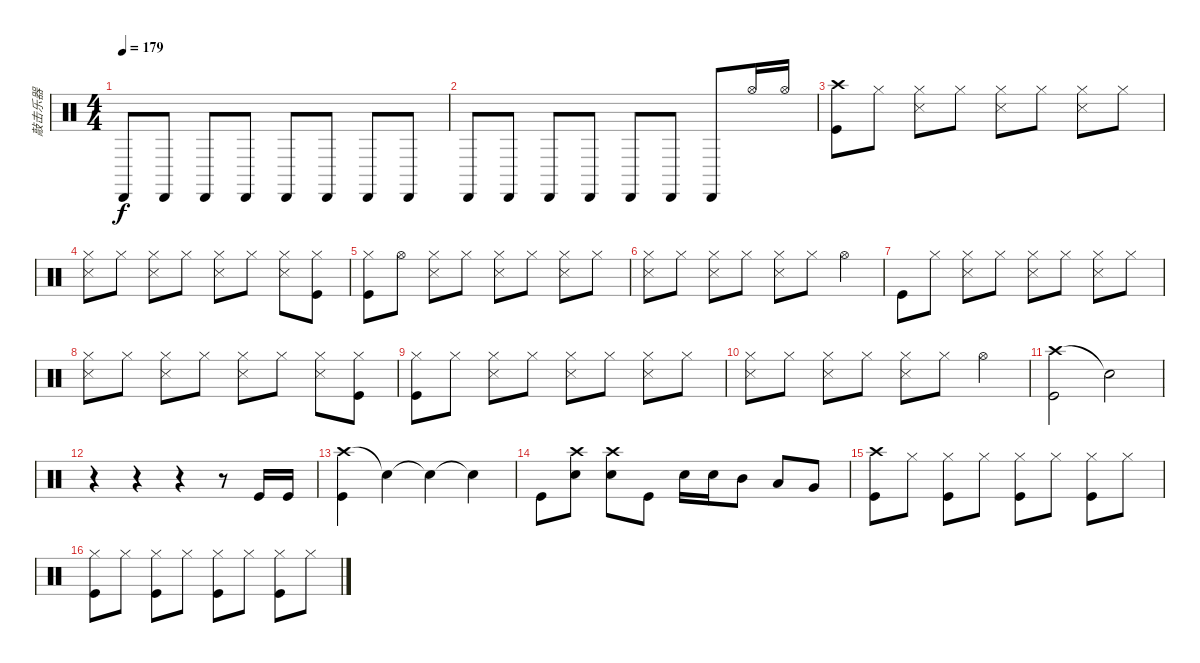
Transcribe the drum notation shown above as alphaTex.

\track ("敲击乐器" "敲击乐器") {instrument percussion}
\staff {score}
\articulation defaults
\ts (4 4)
\tempo 179
\clef neutral
\ks c "Cabasa (hit)".8{dy f} "Cabasa (hit)".8 "Cabasa (hit)".8 "Cabasa (hit)".8 "Cabasa (hit)".8 "Cabasa (hit)".8 "Cabasa (hit)".8 "Cabasa (hit)".8
|
"Cabasa (hit)".8 "Cabasa (hit)".8 "Cabasa (hit)".8 "Cabasa (hit)".8 "Cabasa (hit)".8 "Cabasa (hit)".8 "Cabasa (hit)".8 "Hi-Hat (open)".16 "Hi-Hat (open)".16 |
("Crash high (hit)" "Kick (hit)").8 "Hi-Hat (closed)".8 ("Hi-Hat (closed)" "Snare (side stick) 3").8 "Hi-Hat (closed)".8 ("Hi-Hat (closed)" "Snare (side stick) 3").8 "Hi-Hat (closed)".8 ("Hi-Hat (closed)" "Snare (side stick) 3").8 "Hi-Hat (closed)".8 |
("Hi-Hat (closed)" "Snare (side stick) 3").8 "Hi-Hat (closed)".8 ("Hi-Hat (closed)" "Snare (side stick) 3").8 "Hi-Hat (closed)".8 ("Hi-Hat (closed)" "Snare (side stick) 3").8 "Hi-Hat (closed)".8 ("Hi-Hat (closed)" "Snare (side stick) 3").8 ("Hi-Hat (closed)" "Kick (hit)").8 |
("Hi-Hat (closed)" "Kick (hit)").8 "Hi-Hat (open)".8 ("Hi-Hat (closed)" "Snare (side stick) 3").8 "Hi-Hat (closed)".8 ("Hi-Hat (closed)" "Snare (side stick) 3").8 "Hi-Hat (closed)".8 ("Hi-Hat (closed)" "Snare (side stick) 3").8 "Hi-Hat (closed)".8 |
("Hi-Hat (closed)" "Snare (side stick) 3").8 "Hi-Hat (closed)".8 ("Hi-Hat (closed)" "Snare (side stick) 3").8 "Hi-Hat (closed)".8 ("Hi-Hat (closed)" "Snare (side stick) 3").8 "Hi-Hat (closed)".8 "Hi-Hat (open)".4 |
"Kick (hit)".8 "Hi-Hat (closed)".8 ("Hi-Hat (closed)" "Snare (side stick) 3").8 "Hi-Hat (closed)".8 ("Hi-Hat (closed)" "Snare (side stick) 3").8 "Hi-Hat (closed)".8 ("Hi-Hat (closed)" "Snare (side stick) 3").8 "Hi-Hat (closed)".8 |
("Hi-Hat (closed)" "Snare (side stick) 3").8 "Hi-Hat (closed)".8 ("Hi-Hat (closed)" "Snare (side stick) 3").8 "Hi-Hat (closed)".8 ("Hi-Hat (closed)" "Snare (side stick) 3").8 "Hi-Hat (closed)".8 ("Hi-Hat (closed)" "Snare (side stick) 3").8 ("Hi-Hat (closed)" "Kick (hit)").8 |
("Hi-Hat (closed)" "Kick (hit)").8 "Hi-Hat (closed)".8 ("Hi-Hat (closed)" "Snare (side stick) 3").8 "Hi-Hat (closed)".8 ("Hi-Hat (closed)" "Snare (side stick) 3").8 "Hi-Hat (closed)".8 ("Hi-Hat (closed)" "Snare (side stick) 3").8 "Hi-Hat (closed)".8 |
("Hi-Hat (closed)" "Snare (side stick) 3").8 "Hi-Hat (closed)".8 ("Hi-Hat (closed)" "Snare (side stick) 3").8 "Hi-Hat (closed)".8 ("Hi-Hat (closed)" "Snare (side stick) 3").8 "Hi-Hat (closed)".8 "Hi-Hat (open)".4 |
("Crash high (hit)" "Kick (hit)").2 "Snare (hit)"{t}.2 |
r.4 r.4 r.4 r.8 "Kick (hit)".16 "Kick (hit)".16 |
("Crash high (hit)" "Kick (hit)").4 "Snare (hit)"{t}.4 "Snare (hit)"{t}.4 "Snare (hit)"{t}.4 |
"Kick (hit)".8 ("Crash high (hit)" "Electric Snare (hit)").8 ("Crash high (hit)" "Electric Snare (hit)").8 "Kick (hit)".8 "Electric Snare (hit)".16 "Electric Snare (hit)".16 "Mid Tom (hit)".8 "Low Tom (hit)".8 "Very Low Tom (hit)".8 |
("Crash high (hit)" "Kick (hit)").8 "Hi-Hat (closed)".8 ("Hi-Hat (closed)" "Kick (hit)").8 "Hi-Hat (closed)".8 ("Hi-Hat (closed)" "Kick (hit)").8 "Hi-Hat (closed)".8 ("Hi-Hat (closed)" "Kick (hit)").8 "Hi-Hat (closed)".8 |
("Hi-Hat (closed)" "Kick (hit)").8 "Hi-Hat (closed)".8 ("Hi-Hat (closed)" "Kick (hit)").8 "Hi-Hat (closed)".8 ("Hi-Hat (closed)" "Kick (hit)").8 "Hi-Hat (closed)".8 ("Hi-Hat (closed)" "Kick (hit)").8 "Hi-Hat (closed)".8
